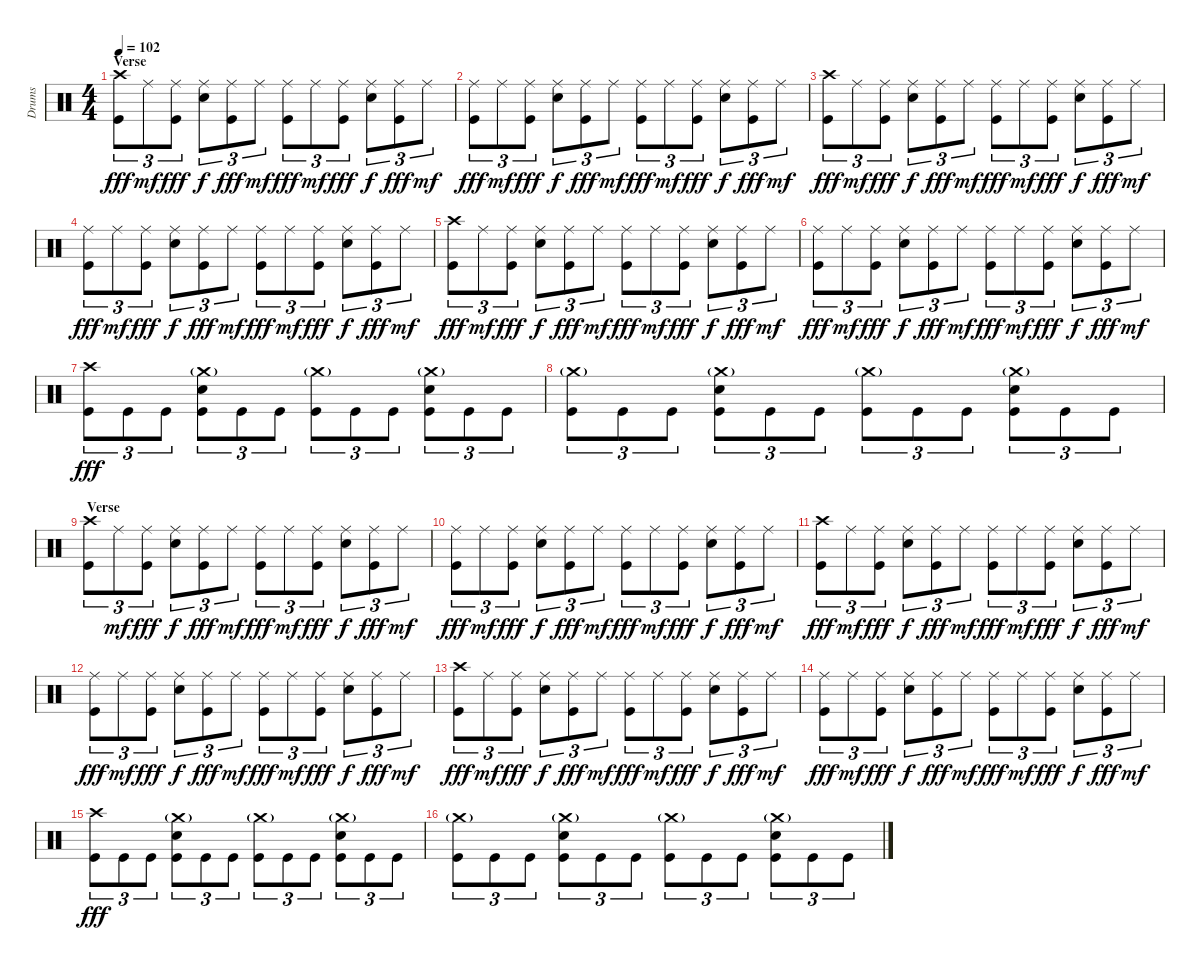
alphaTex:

\track ("Drums" "Drums") {instrument percussion}
\staff {score}
\articulation defaults
\ts (4 4)
\section ("" "Verse")
\tempo 102
\clef neutral
\ks c
("Crash high (hit)" "Kick (hit)").8{tu (3 2) dy fff} "Ride (middle)".8{tu (3 2) dy mf} ("Ride (middle)" "Kick (hit)").8{tu (3 2) dy fff} ("Ride (middle)" "Snare (hit) 2").8{tu (3 2) dy f} ("Ride (middle)" "Kick (hit)").8{tu (3 2) dy fff} "Ride (middle)".8{tu (3 2) dy mf} ("Ride (middle)" "Kick (hit)").8{tu (3 2) dy fff} "Ride (middle)".8{tu (3 2) dy mf} ("Ride (middle)" "Kick (hit)").8{tu (3 2) dy fff} ("Ride (middle)" "Snare (hit) 2").8{tu (3 2) dy f} ("Ride (middle)" "Kick (hit)").8{tu (3 2) dy fff} "Ride (middle)".8{tu (3 2) dy mf} |
("Ride (middle)" "Kick (hit)").8{tu (3 2) dy fff} "Ride (middle)".8{tu (3 2) dy mf} ("Ride (middle)" "Kick (hit)").8{tu (3 2) dy fff} ("Ride (middle)" "Snare (hit) 2").8{tu (3 2) dy f} ("Ride (middle)" "Kick (hit)").8{tu (3 2) dy fff} "Ride (middle)".8{tu (3 2) dy mf} ("Ride (middle)" "Kick (hit)").8{tu (3 2) dy fff} "Ride (middle)".8{tu (3 2) dy mf} ("Ride (middle)" "Kick (hit)").8{tu (3 2) dy fff} ("Ride (middle)" "Snare (hit) 2").8{tu (3 2) dy f} ("Ride (middle)" "Kick (hit)").8{tu (3 2) dy fff} "Ride (middle)".8{tu (3 2) dy mf} |
("Crash high (hit)" "Kick (hit)").8{tu (3 2) dy fff} "Ride (middle)".8{tu (3 2) dy mf} ("Ride (middle)" "Kick (hit)").8{tu (3 2) dy fff} ("Ride (middle)" "Snare (hit) 2").8{tu (3 2) dy f} ("Ride (middle)" "Kick (hit)").8{tu (3 2) dy fff} "Ride (middle)".8{tu (3 2) dy mf} ("Ride (middle)" "Kick (hit)").8{tu (3 2) dy fff} "Ride (middle)".8{tu (3 2) dy mf} ("Ride (middle)" "Kick (hit)").8{tu (3 2) dy fff} ("Ride (middle)" "Snare (hit) 2").8{tu (3 2) dy f} ("Ride (middle)" "Kick (hit)").8{tu (3 2) dy fff} "Ride (middle)".8{tu (3 2) dy mf} |
("Ride (middle)" "Kick (hit)").8{tu (3 2) dy fff} "Ride (middle)".8{tu (3 2) dy mf} ("Ride (middle)" "Kick (hit)").8{tu (3 2) dy fff} ("Ride (middle)" "Snare (hit) 2").8{tu (3 2) dy f} ("Ride (middle)" "Kick (hit)").8{tu (3 2) dy fff} "Ride (middle)".8{tu (3 2) dy mf} ("Ride (middle)" "Kick (hit)").8{tu (3 2) dy fff} "Ride (middle)".8{tu (3 2) dy mf} ("Ride (middle)" "Kick (hit)").8{tu (3 2) dy fff} ("Ride (middle)" "Snare (hit) 2").8{tu (3 2) dy f} ("Ride (middle)" "Kick (hit)").8{tu (3 2) dy fff} "Ride (middle)".8{tu (3 2) dy mf} |
("Crash high (hit)" "Kick (hit)").8{tu (3 2) dy fff} "Ride (middle)".8{tu (3 2) dy mf} ("Ride (middle)" "Kick (hit)").8{tu (3 2) dy fff} ("Ride (middle)" "Snare (hit) 2").8{tu (3 2) dy f} ("Ride (middle)" "Kick (hit)").8{tu (3 2) dy fff} "Ride (middle)".8{tu (3 2) dy mf} ("Ride (middle)" "Kick (hit)").8{tu (3 2) dy fff} "Ride (middle)".8{tu (3 2) dy mf} ("Ride (middle)" "Kick (hit)").8{tu (3 2) dy fff} ("Ride (middle)" "Snare (hit) 2").8{tu (3 2) dy f} ("Ride (middle)" "Kick (hit)").8{tu (3 2) dy fff} "Ride (middle)".8{tu (3 2) dy mf} |
("Ride (middle)" "Kick (hit)").8{tu (3 2) dy fff} "Ride (middle)".8{tu (3 2) dy mf} ("Ride (middle)" "Kick (hit)").8{tu (3 2) dy fff} ("Ride (middle)" "Snare (hit) 2").8{tu (3 2) dy f} ("Ride (middle)" "Kick (hit)").8{tu (3 2) dy fff} "Ride (middle)".8{tu (3 2) dy mf} ("Ride (middle)" "Kick (hit)").8{tu (3 2) dy fff} "Ride (middle)".8{tu (3 2) dy mf} ("Ride (middle)" "Kick (hit)").8{tu (3 2) dy fff} ("Ride (middle)" "Snare (hit) 2").8{tu (3 2) dy f} ("Ride (middle)" "Kick (hit)").8{tu (3 2) dy fff} "Ride (middle)".8{tu (3 2) dy mf} |
("Crash high (hit)" "Kick (hit)").8{tu (3 2) dy fff} "Kick (hit)".8{tu (3 2)} "Kick (hit)".8{tu (3 2)} ("Crash medium (hit)"{g} "Snare (hit) 2" "Kick (hit)").8{tu (3 2)} "Kick (hit)".8{tu (3 2)} "Kick (hit)".8{tu (3 2)} ("Crash medium (hit)"{g} "Kick (hit)").8{tu (3 2)} "Kick (hit)".8{tu (3 2)} "Kick (hit)".8{tu (3 2)} ("Crash medium (hit)"{g} "Snare (hit) 2" "Kick (hit)").8{tu (3 2)} "Kick (hit)".8{tu (3 2)} "Kick (hit)".8{tu (3 2)} |
("Crash medium (hit)"{g} "Kick (hit)").8{tu (3 2)} "Kick (hit)".8{tu (3 2)} "Kick (hit)".8{tu (3 2)} ("Crash medium (hit)"{g} "Snare (hit) 2" "Kick (hit)").8{tu (3 2)} "Kick (hit)".8{tu (3 2)} "Kick (hit)".8{tu (3 2)} ("Crash medium (hit)"{g} "Kick (hit)").8{tu (3 2)} "Kick (hit)".8{tu (3 2)} "Kick (hit)".8{tu (3 2)} ("Crash medium (hit)"{g} "Snare (hit) 2" "Kick (hit)").8{tu (3 2)} "Kick (hit)".8{tu (3 2)} "Kick (hit)".8{tu (3 2)} |
\section ("" " Verse")
("Crash high (hit)" "Kick (hit)").8{tu (3 2)} "Ride (middle)".8{tu (3 2) dy mf} ("Ride (middle)" "Kick (hit)").8{tu (3 2) dy fff} ("Ride (middle)" "Snare (hit) 2").8{tu (3 2) dy f} ("Ride (middle)" "Kick (hit)").8{tu (3 2) dy fff} "Ride (middle)".8{tu (3 2) dy mf} ("Ride (middle)" "Kick (hit)").8{tu (3 2) dy fff} "Ride (middle)".8{tu (3 2) dy mf} ("Ride (middle)" "Kick (hit)").8{tu (3 2) dy fff} ("Ride (middle)" "Snare (hit) 2").8{tu (3 2) dy f} ("Ride (middle)" "Kick (hit)").8{tu (3 2) dy fff} "Ride (middle)".8{tu (3 2) dy mf} |
("Ride (middle)" "Kick (hit)").8{tu (3 2) dy fff} "Ride (middle)".8{tu (3 2) dy mf} ("Ride (middle)" "Kick (hit)").8{tu (3 2) dy fff} ("Ride (middle)" "Snare (hit) 2").8{tu (3 2) dy f} ("Ride (middle)" "Kick (hit)").8{tu (3 2) dy fff} "Ride (middle)".8{tu (3 2) dy mf} ("Ride (middle)" "Kick (hit)").8{tu (3 2) dy fff} "Ride (middle)".8{tu (3 2) dy mf} ("Ride (middle)" "Kick (hit)").8{tu (3 2) dy fff} ("Ride (middle)" "Snare (hit) 2").8{tu (3 2) dy f} ("Ride (middle)" "Kick (hit)").8{tu (3 2) dy fff} "Ride (middle)".8{tu (3 2) dy mf} |
("Crash high (hit)" "Kick (hit)").8{tu (3 2) dy fff} "Ride (middle)".8{tu (3 2) dy mf} ("Ride (middle)" "Kick (hit)").8{tu (3 2) dy fff} ("Ride (middle)" "Snare (hit) 2").8{tu (3 2) dy f} ("Ride (middle)" "Kick (hit)").8{tu (3 2) dy fff} "Ride (middle)".8{tu (3 2) dy mf} ("Ride (middle)" "Kick (hit)").8{tu (3 2) dy fff} "Ride (middle)".8{tu (3 2) dy mf} ("Ride (middle)" "Kick (hit)").8{tu (3 2) dy fff} ("Ride (middle)" "Snare (hit) 2").8{tu (3 2) dy f} ("Ride (middle)" "Kick (hit)").8{tu (3 2) dy fff} "Ride (middle)".8{tu (3 2) dy mf} |
("Ride (middle)" "Kick (hit)").8{tu (3 2) dy fff} "Ride (middle)".8{tu (3 2) dy mf} ("Ride (middle)" "Kick (hit)").8{tu (3 2) dy fff} ("Ride (middle)" "Snare (hit) 2").8{tu (3 2) dy f} ("Ride (middle)" "Kick (hit)").8{tu (3 2) dy fff} "Ride (middle)".8{tu (3 2) dy mf} ("Ride (middle)" "Kick (hit)").8{tu (3 2) dy fff} "Ride (middle)".8{tu (3 2) dy mf} ("Ride (middle)" "Kick (hit)").8{tu (3 2) dy fff} ("Ride (middle)" "Snare (hit) 2").8{tu (3 2) dy f} ("Ride (middle)" "Kick (hit)").8{tu (3 2) dy fff} "Ride (middle)".8{tu (3 2) dy mf} |
("Crash high (hit)" "Kick (hit)").8{tu (3 2) dy fff} "Ride (middle)".8{tu (3 2) dy mf} ("Ride (middle)" "Kick (hit)").8{tu (3 2) dy fff} ("Ride (middle)" "Snare (hit) 2").8{tu (3 2) dy f} ("Ride (middle)" "Kick (hit)").8{tu (3 2) dy fff} "Ride (middle)".8{tu (3 2) dy mf} ("Ride (middle)" "Kick (hit)").8{tu (3 2) dy fff} "Ride (middle)".8{tu (3 2) dy mf} ("Ride (middle)" "Kick (hit)").8{tu (3 2) dy fff} ("Ride (middle)" "Snare (hit) 2").8{tu (3 2) dy f} ("Ride (middle)" "Kick (hit)").8{tu (3 2) dy fff} "Ride (middle)".8{tu (3 2) dy mf} |
("Ride (middle)" "Kick (hit)").8{tu (3 2) dy fff} "Ride (middle)".8{tu (3 2) dy mf} ("Ride (middle)" "Kick (hit)").8{tu (3 2) dy fff} ("Ride (middle)" "Snare (hit) 2").8{tu (3 2) dy f} ("Ride (middle)" "Kick (hit)").8{tu (3 2) dy fff} "Ride (middle)".8{tu (3 2) dy mf} ("Ride (middle)" "Kick (hit)").8{tu (3 2) dy fff} "Ride (middle)".8{tu (3 2) dy mf} ("Ride (middle)" "Kick (hit)").8{tu (3 2) dy fff} ("Ride (middle)" "Snare (hit) 2").8{tu (3 2) dy f} ("Ride (middle)" "Kick (hit)").8{tu (3 2) dy fff} "Ride (middle)".8{tu (3 2) dy mf} |
("Crash high (hit)" "Kick (hit)").8{tu (3 2) dy fff} "Kick (hit)".8{tu (3 2)} "Kick (hit)".8{tu (3 2)} ("Crash medium (hit)"{g} "Snare (hit) 2" "Kick (hit)").8{tu (3 2)} "Kick (hit)".8{tu (3 2)} "Kick (hit)".8{tu (3 2)} ("Crash medium (hit)"{g} "Kick (hit)").8{tu (3 2)} "Kick (hit)".8{tu (3 2)} "Kick (hit)".8{tu (3 2)} ("Crash medium (hit)"{g} "Snare (hit) 2" "Kick (hit)").8{tu (3 2)} "Kick (hit)".8{tu (3 2)} "Kick (hit)".8{tu (3 2)} |
("Crash medium (hit)"{g} "Kick (hit)").8{tu (3 2)} "Kick (hit)".8{tu (3 2)} "Kick (hit)".8{tu (3 2)} ("Crash medium (hit)"{g} "Snare (hit) 2" "Kick (hit)").8{tu (3 2)} "Kick (hit)".8{tu (3 2)} "Kick (hit)".8{tu (3 2)} ("Crash medium (hit)"{g} "Kick (hit)").8{tu (3 2)} "Kick (hit)".8{tu (3 2)} "Kick (hit)".8{tu (3 2)} ("Crash medium (hit)"{g} "Snare (hit) 2" "Kick (hit)").8{tu (3 2)} "Kick (hit)".8{tu (3 2)} "Kick (hit)".8{tu (3 2)}
